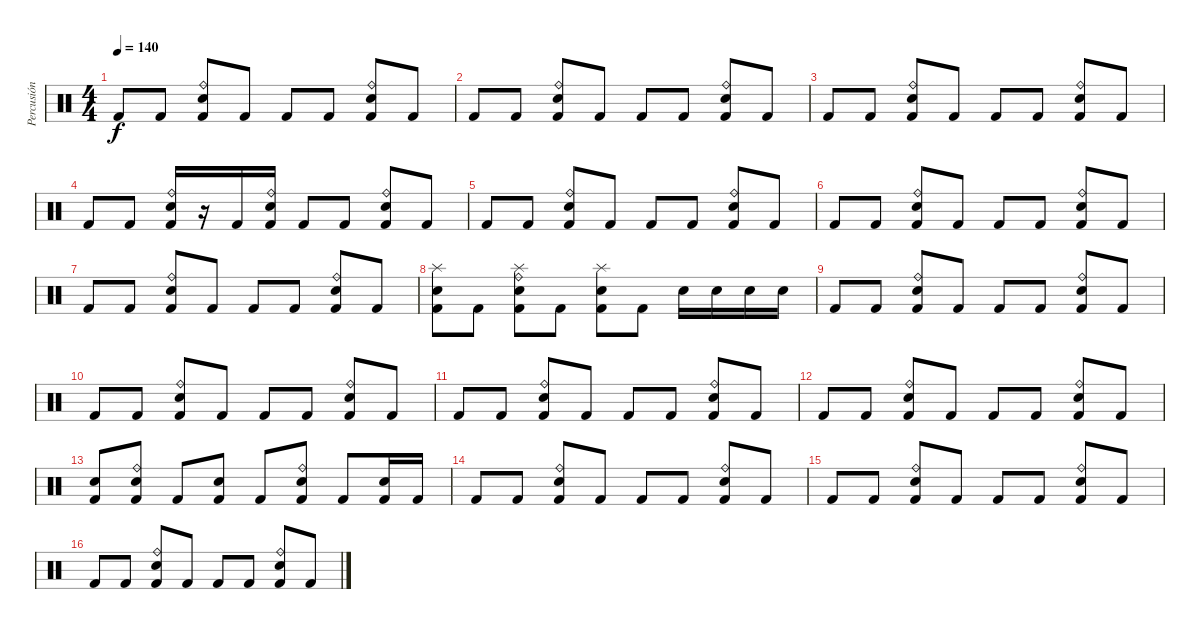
\track ("Percusión" "Percusión") {instrument percussion}
\staff {score}
\articulation defaults
\ts (4 4)
\tempo 140
\clef neutral
\ks c "Kick (hit) 2".8{dy f} "Kick (hit) 2".8
("Ride (bell)" "Electric Snare (hit)" "Kick (hit) 2").8 "Kick (hit) 2".8 "Kick (hit) 2".8 "Kick (hit) 2".8 ("Ride (bell)" "Electric Snare (hit)" "Kick (hit) 2").8 "Kick (hit) 2".8 |
"Kick (hit) 2".8 "Kick (hit) 2".8 ("Ride (bell)" "Electric Snare (hit)" "Kick (hit) 2").8 "Kick (hit) 2".8 "Kick (hit) 2".8 "Kick (hit) 2".8 ("Ride (bell)" "Electric Snare (hit)" "Kick (hit) 2").8 "Kick (hit) 2".8 |
"Kick (hit) 2".8 "Kick (hit) 2".8 ("Ride (bell)" "Electric Snare (hit)" "Kick (hit) 2").8 "Kick (hit) 2".8 "Kick (hit) 2".8 "Kick (hit) 2".8 ("Ride (bell)" "Electric Snare (hit)" "Kick (hit) 2").8 "Kick (hit) 2".8 |
"Kick (hit) 2".8 "Kick (hit) 2".8 ("Ride (bell)" "Electric Snare (hit)" "Kick (hit) 2").16 r.16 "Kick (hit) 2".16 ("Ride (bell)" "Electric Snare (hit)" "Kick (hit) 2").16 "Kick (hit) 2".8 "Kick (hit) 2".8 ("Ride (bell)" "Electric Snare (hit)" "Kick (hit) 2").8 "Kick (hit) 2".8 |
"Kick (hit) 2".8 "Kick (hit) 2".8 ("Ride (bell)" "Electric Snare (hit)" "Kick (hit) 2").8 "Kick (hit) 2".8 "Kick (hit) 2".8 "Kick (hit) 2".8 ("Ride (bell)" "Electric Snare (hit)" "Kick (hit) 2").8 "Kick (hit) 2".8 |
"Kick (hit) 2".8 "Kick (hit) 2".8 ("Ride (bell)" "Electric Snare (hit)" "Kick (hit) 2").8 "Kick (hit) 2".8 "Kick (hit) 2".8 "Kick (hit) 2".8 ("Ride (bell)" "Electric Snare (hit)" "Kick (hit) 2").8 "Kick (hit) 2".8 |
"Kick (hit) 2".8 "Kick (hit) 2".8 ("Ride (bell)" "Electric Snare (hit)" "Kick (hit) 2").8 "Kick (hit) 2".8 "Kick (hit) 2".8 "Kick (hit) 2".8 ("Ride (bell)" "Electric Snare (hit)" "Kick (hit) 2").8 "Kick (hit) 2".8 |
("Splash (hit)" "Electric Snare (hit)" "Kick (hit) 2").8 "Kick (hit) 2".8 ("Ride (bell)" "Splash (hit)" "Electric Snare (hit)" "Kick (hit) 2").8 "Kick (hit) 2".8 ("Splash (hit)" "Electric Snare (hit)" "Kick (hit) 2").8 "Kick (hit) 2".8 "Electric Snare (hit)".16 "Electric Snare (hit)".16 "Electric Snare (hit)".16 "Electric Snare (hit)".16 |
"Kick (hit) 2".8 "Kick (hit) 2".8 ("Ride (bell)" "Electric Snare (hit)" "Kick (hit) 2").8 "Kick (hit) 2".8 "Kick (hit) 2".8 "Kick (hit) 2".8 ("Ride (bell)" "Electric Snare (hit)" "Kick (hit) 2").8 "Kick (hit) 2".8 |
"Kick (hit) 2".8 "Kick (hit) 2".8 ("Ride (bell)" "Electric Snare (hit)" "Kick (hit) 2").8 "Kick (hit) 2".8 "Kick (hit) 2".8 "Kick (hit) 2".8 ("Ride (bell)" "Electric Snare (hit)" "Kick (hit) 2").8 "Kick (hit) 2".8 |
"Kick (hit) 2".8 "Kick (hit) 2".8 ("Ride (bell)" "Electric Snare (hit)" "Kick (hit) 2").8 "Kick (hit) 2".8 "Kick (hit) 2".8 "Kick (hit) 2".8 ("Ride (bell)" "Electric Snare (hit)" "Kick (hit) 2").8 "Kick (hit) 2".8 |
"Kick (hit) 2".8 "Kick (hit) 2".8 ("Ride (bell)" "Electric Snare (hit)" "Kick (hit) 2").8 "Kick (hit) 2".8 "Kick (hit) 2".8 "Kick (hit) 2".8 ("Ride (bell)" "Electric Snare (hit)" "Kick (hit) 2").8 "Kick (hit) 2".8 |
("Electric Snare (hit)" "Kick (hit) 2").8 ("Ride (bell)" "Electric Snare (hit)" "Kick (hit) 2").8 "Kick (hit) 2".8 ("Electric Snare (hit)" "Kick (hit) 2").8 "Kick (hit) 2".8 ("Ride (bell)" "Electric Snare (hit)" "Kick (hit) 2").8 "Kick (hit) 2".8 ("Electric Snare (hit)" "Kick (hit) 2").16 "Kick (hit) 2".16 |
"Kick (hit) 2".8 "Kick (hit) 2".8 ("Ride (bell)" "Electric Snare (hit)" "Kick (hit) 2").8 "Kick (hit) 2".8 "Kick (hit) 2".8 "Kick (hit) 2".8 ("Ride (bell)" "Electric Snare (hit)" "Kick (hit) 2").8 "Kick (hit) 2".8 |
"Kick (hit) 2".8 "Kick (hit) 2".8 ("Ride (bell)" "Electric Snare (hit)" "Kick (hit) 2").8 "Kick (hit) 2".8 "Kick (hit) 2".8 "Kick (hit) 2".8 ("Ride (bell)" "Electric Snare (hit)" "Kick (hit) 2").8 "Kick (hit) 2".8 |
"Kick (hit) 2".8 "Kick (hit) 2".8 ("Ride (bell)" "Electric Snare (hit)" "Kick (hit) 2").8 "Kick (hit) 2".8 "Kick (hit) 2".8 "Kick (hit) 2".8 ("Ride (bell)" "Electric Snare (hit)" "Kick (hit) 2").8 "Kick (hit) 2".8
